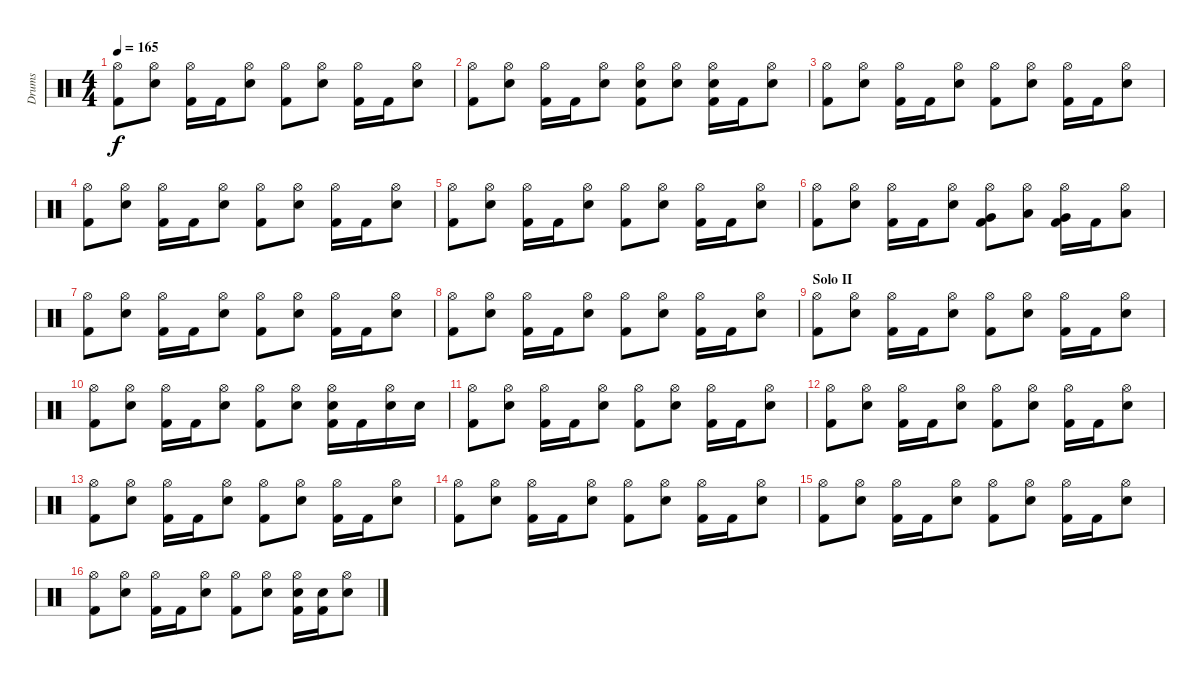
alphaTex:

\track ("Drums" "Drums") {instrument percussion}
\staff {score}
\articulation defaults
\ts (4 4)
\tempo 165
\clef neutral
\ks c
("Hi-Hat (open)" "Kick (hit) 2").8{dy f} ("Hi-Hat (open)" "Snare (hit) 2").8 ("Hi-Hat (open)" "Kick (hit) 2").16 "Kick (hit) 2".16 ("Hi-Hat (open)" "Snare (hit) 2").8 ("Hi-Hat (open)" "Kick (hit) 2").8 ("Hi-Hat (open)" "Snare (hit) 2").8 ("Hi-Hat (open)" "Kick (hit) 2").16 "Kick (hit) 2".16 ("Hi-Hat (open)" "Snare (hit) 2").8 |
("Hi-Hat (open)" "Kick (hit) 2").8 ("Hi-Hat (open)" "Snare (hit) 2").8 ("Hi-Hat (open)" "Kick (hit) 2").16 "Kick (hit) 2".16 ("Hi-Hat (open)" "Snare (hit) 2").8 ("Hi-Hat (open)" "Snare (hit) 2" "Kick (hit) 2").8 ("Hi-Hat (open)" "Snare (hit) 2").8 ("Hi-Hat (open)" "Snare (hit) 2" "Kick (hit) 2").16 "Kick (hit) 2".16 ("Hi-Hat (open)" "Snare (hit) 2").8 |
("Hi-Hat (open)" "Kick (hit) 2").8 ("Hi-Hat (open)" "Snare (hit) 2").8 ("Hi-Hat (open)" "Kick (hit) 2").16 "Kick (hit) 2".16 ("Hi-Hat (open)" "Snare (hit) 2").8 ("Hi-Hat (open)" "Kick (hit) 2").8 ("Hi-Hat (open)" "Snare (hit) 2").8 ("Hi-Hat (open)" "Kick (hit) 2").16 "Kick (hit) 2".16 ("Hi-Hat (open)" "Snare (hit) 2").8 |
("Hi-Hat (open)" "Kick (hit) 2").8 ("Hi-Hat (open)" "Snare (hit) 2").8 ("Hi-Hat (open)" "Kick (hit) 2").16 "Kick (hit) 2".16 ("Hi-Hat (open)" "Snare (hit) 2").8 ("Hi-Hat (open)" "Kick (hit) 2").8 ("Hi-Hat (open)" "Snare (hit) 2").8 ("Hi-Hat (open)" "Kick (hit) 2").16 "Kick (hit) 2".16 ("Hi-Hat (open)" "Snare (hit) 2").8 |
("Hi-Hat (open)" "Kick (hit) 2").8 ("Hi-Hat (open)" "Snare (hit) 2").8 ("Hi-Hat (open)" "Kick (hit) 2").16 "Kick (hit) 2".16 ("Hi-Hat (open)" "Snare (hit) 2").8 ("Hi-Hat (open)" "Kick (hit) 2").8 ("Hi-Hat (open)" "Snare (hit) 2").8 ("Hi-Hat (open)" "Kick (hit) 2").16 "Kick (hit) 2".16 ("Hi-Hat (open)" "Snare (hit) 2").8 |
("Hi-Hat (open)" "Kick (hit) 2").8 ("Hi-Hat (open)" "Snare (hit) 2").8 ("Hi-Hat (open)" "Kick (hit) 2").16 "Kick (hit) 2".16 ("Hi-Hat (open)" "Snare (hit) 2").8 ("Hi-Hat (open)" "Very Low Tom (hit)" "Kick (hit) 2").8 ("Hi-Hat (open)" "Low Tom (hit)").8 ("Hi-Hat (open)" "Very Low Tom (hit)" "Kick (hit) 2").16 "Kick (hit) 2".16 ("Hi-Hat (open)" "Low Tom (hit)").8 |
("Hi-Hat (open)" "Kick (hit) 2").8 ("Hi-Hat (open)" "Snare (hit) 2").8 ("Hi-Hat (open)" "Kick (hit) 2").16 "Kick (hit) 2".16 ("Hi-Hat (open)" "Snare (hit) 2").8 ("Hi-Hat (open)" "Kick (hit) 2").8 ("Hi-Hat (open)" "Snare (hit) 2").8 ("Hi-Hat (open)" "Kick (hit) 2").16 "Kick (hit) 2".16 ("Hi-Hat (open)" "Snare (hit) 2").8 |
("Hi-Hat (open)" "Kick (hit) 2").8 ("Hi-Hat (open)" "Snare (hit) 2").8 ("Hi-Hat (open)" "Kick (hit) 2").16 "Kick (hit) 2".16 ("Hi-Hat (open)" "Snare (hit) 2").8 ("Hi-Hat (open)" "Kick (hit) 2").8 ("Hi-Hat (open)" "Snare (hit) 2").8 ("Hi-Hat (open)" "Kick (hit) 2").16 "Kick (hit) 2".16 ("Hi-Hat (open)" "Snare (hit) 2").8 |
\section ("" "Solo II")
("Hi-Hat (open)" "Kick (hit) 2").8 ("Hi-Hat (open)" "Snare (hit) 2").8 ("Hi-Hat (open)" "Kick (hit) 2").16 "Kick (hit) 2".16 ("Hi-Hat (open)" "Snare (hit) 2").8 ("Hi-Hat (open)" "Kick (hit) 2").8 ("Hi-Hat (open)" "Snare (hit) 2").8 ("Hi-Hat (open)" "Kick (hit) 2").16 "Kick (hit) 2".16 ("Hi-Hat (open)" "Snare (hit) 2").8 |
("Hi-Hat (open)" "Kick (hit) 2").8 ("Hi-Hat (open)" "Snare (hit) 2").8 ("Hi-Hat (open)" "Kick (hit) 2").16 "Kick (hit) 2".16 ("Hi-Hat (open)" "Snare (hit) 2").8 ("Hi-Hat (open)" "Kick (hit) 2").8 ("Hi-Hat (open)" "Snare (hit) 2").8 ("Hi-Hat (open)" "Snare (hit) 2" "Kick (hit) 2").16 "Kick (hit) 2".16 ("Hi-Hat (open)" "Snare (hit) 2").16 "Snare (hit) 2".16 |
("Hi-Hat (open)" "Kick (hit) 2").8 ("Hi-Hat (open)" "Snare (hit) 2").8 ("Hi-Hat (open)" "Kick (hit) 2").16 "Kick (hit) 2".16 ("Hi-Hat (open)" "Snare (hit) 2").8 ("Hi-Hat (open)" "Kick (hit) 2").8 ("Hi-Hat (open)" "Snare (hit) 2").8 ("Hi-Hat (open)" "Kick (hit) 2").16 "Kick (hit) 2".16 ("Hi-Hat (open)" "Snare (hit) 2").8 |
("Hi-Hat (open)" "Kick (hit) 2").8 ("Hi-Hat (open)" "Snare (hit) 2").8 ("Hi-Hat (open)" "Kick (hit) 2").16 "Kick (hit) 2".16 ("Hi-Hat (open)" "Snare (hit) 2").8 ("Hi-Hat (open)" "Kick (hit) 2").8 ("Hi-Hat (open)" "Snare (hit) 2").8 ("Hi-Hat (open)" "Kick (hit) 2").16 "Kick (hit) 2".16 ("Hi-Hat (open)" "Snare (hit) 2").8 |
("Hi-Hat (open)" "Kick (hit) 2").8 ("Hi-Hat (open)" "Snare (hit) 2").8 ("Hi-Hat (open)" "Kick (hit) 2").16 "Kick (hit) 2".16 ("Hi-Hat (open)" "Snare (hit) 2").8 ("Hi-Hat (open)" "Kick (hit) 2").8 ("Hi-Hat (open)" "Snare (hit) 2").8 ("Hi-Hat (open)" "Kick (hit) 2").16 "Kick (hit) 2".16 ("Hi-Hat (open)" "Snare (hit) 2").8 |
("Hi-Hat (open)" "Kick (hit) 2").8 ("Hi-Hat (open)" "Snare (hit) 2").8 ("Hi-Hat (open)" "Kick (hit) 2").16 "Kick (hit) 2".16 ("Hi-Hat (open)" "Snare (hit) 2").8 ("Hi-Hat (open)" "Kick (hit) 2").8 ("Hi-Hat (open)" "Snare (hit) 2").8 ("Hi-Hat (open)" "Kick (hit) 2").16 "Kick (hit) 2".16 ("Hi-Hat (open)" "Snare (hit) 2").8 |
("Hi-Hat (open)" "Kick (hit) 2").8 ("Hi-Hat (open)" "Snare (hit) 2").8 ("Hi-Hat (open)" "Kick (hit) 2").16 "Kick (hit) 2".16 ("Hi-Hat (open)" "Snare (hit) 2").8 ("Hi-Hat (open)" "Kick (hit) 2").8 ("Hi-Hat (open)" "Snare (hit) 2").8 ("Hi-Hat (open)" "Kick (hit) 2").16 "Kick (hit) 2".16 ("Hi-Hat (open)" "Snare (hit) 2").8 |
("Hi-Hat (open)" "Kick (hit) 2").8 ("Hi-Hat (open)" "Snare (hit) 2").8 ("Hi-Hat (open)" "Kick (hit) 2").16 "Kick (hit) 2".16 ("Hi-Hat (open)" "Snare (hit) 2").8 ("Hi-Hat (open)" "Kick (hit) 2").8 ("Hi-Hat (open)" "Snare (hit) 2").8 ("Hi-Hat (open)" "Snare (hit) 2" "Kick (hit) 2").16 ("Snare (hit) 2" "Kick (hit) 2").16 ("Hi-Hat (open)" "Snare (hit) 2").8
